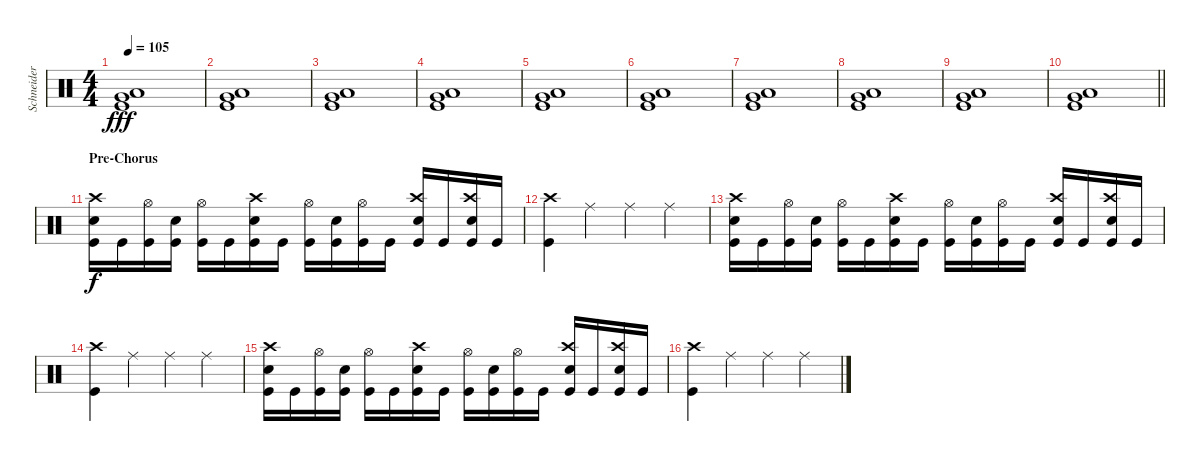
\track ("Schneider" "Schneider") {instrument percussion}
\staff {score}
\articulation defaults
\ts (4 4)
\tempo 105
\clef neutral
\ks c
("Kick (hit)" "Low Floor Tom (hit)" "Very Low Tom (hit)").1{dy fff} |
("Kick (hit)" "Low Floor Tom (hit)" "Very Low Tom (hit)").1 |
("Kick (hit)" "Low Floor Tom (hit)" "Very Low Tom (hit)").1 |
("Kick (hit)" "Low Floor Tom (hit)" "Very Low Tom (hit)").1 |
("Kick (hit)" "Low Floor Tom (hit)" "Very Low Tom (hit)").1 |
("Kick (hit)" "Low Floor Tom (hit)" "Very Low Tom (hit)").1 |
("Kick (hit)" "Low Floor Tom (hit)" "Very Low Tom (hit)").1 |
("Kick (hit)" "Low Floor Tom (hit)" "Very Low Tom (hit)").1 |
("Kick (hit)" "Low Floor Tom (hit)" "Very Low Tom (hit)").1 |
\barLineRight lightlight
("Kick (hit)" "Low Floor Tom (hit)" "Very Low Tom (hit)").1 |
\section ("" "Pre-Chorus")
("Crash high (hit)" "Electric Snare (hit)" "Kick (hit)").16{dy f} "Kick (hit)".16 ("Hi-Hat (open)" "Kick (hit)").16 ("Electric Snare (hit)" "Kick (hit)").16 ("Hi-Hat (open)" "Kick (hit)").16 "Kick (hit)".16 ("Crash high (hit)" "Electric Snare (hit)" "Kick (hit)").16 "Kick (hit)".16 ("Hi-Hat (open)" "Kick (hit)").16 ("Electric Snare (hit)" "Kick (hit)").16 ("Hi-Hat (open)" "Kick (hit)").16 "Kick (hit)".16 ("Crash high (hit)" "Electric Snare (hit)" "Kick (hit)").16 "Kick (hit)".16 ("Crash high (hit)" "Electric Snare (hit)" "Kick (hit)").16 "Kick (hit)".16 |
("Crash high (hit)" "Kick (hit)").4 "Ride (middle)".4 "Ride (middle)".4 "Ride (middle)".4 |
("Crash high (hit)" "Electric Snare (hit)" "Kick (hit)").16 "Kick (hit)".16 ("Hi-Hat (open)" "Kick (hit)").16 ("Electric Snare (hit)" "Kick (hit)").16 ("Hi-Hat (open)" "Kick (hit)").16 "Kick (hit)".16 ("Crash high (hit)" "Electric Snare (hit)" "Kick (hit)").16 "Kick (hit)".16 ("Hi-Hat (open)" "Kick (hit)").16 ("Electric Snare (hit)" "Kick (hit)").16 ("Hi-Hat (open)" "Kick (hit)").16 "Kick (hit)".16 ("Crash high (hit)" "Electric Snare (hit)" "Kick (hit)").16 "Kick (hit)".16 ("Crash high (hit)" "Electric Snare (hit)" "Kick (hit)").16 "Kick (hit)".16 |
("Crash high (hit)" "Kick (hit)").4 "Ride (middle)".4 "Ride (middle)".4 "Ride (middle)".4 |
("Crash high (hit)" "Electric Snare (hit)" "Kick (hit)").16 "Kick (hit)".16 ("Hi-Hat (open)" "Kick (hit)").16 ("Electric Snare (hit)" "Kick (hit)").16 ("Hi-Hat (open)" "Kick (hit)").16 "Kick (hit)".16 ("Crash high (hit)" "Electric Snare (hit)" "Kick (hit)").16 "Kick (hit)".16 ("Hi-Hat (open)" "Kick (hit)").16 ("Electric Snare (hit)" "Kick (hit)").16 ("Hi-Hat (open)" "Kick (hit)").16 "Kick (hit)".16 ("Crash high (hit)" "Electric Snare (hit)" "Kick (hit)").16 "Kick (hit)".16 ("Crash high (hit)" "Electric Snare (hit)" "Kick (hit)").16 "Kick (hit)".16 |
("Crash high (hit)" "Kick (hit)").4 "Ride (middle)".4 "Ride (middle)".4 "Ride (middle)".4
